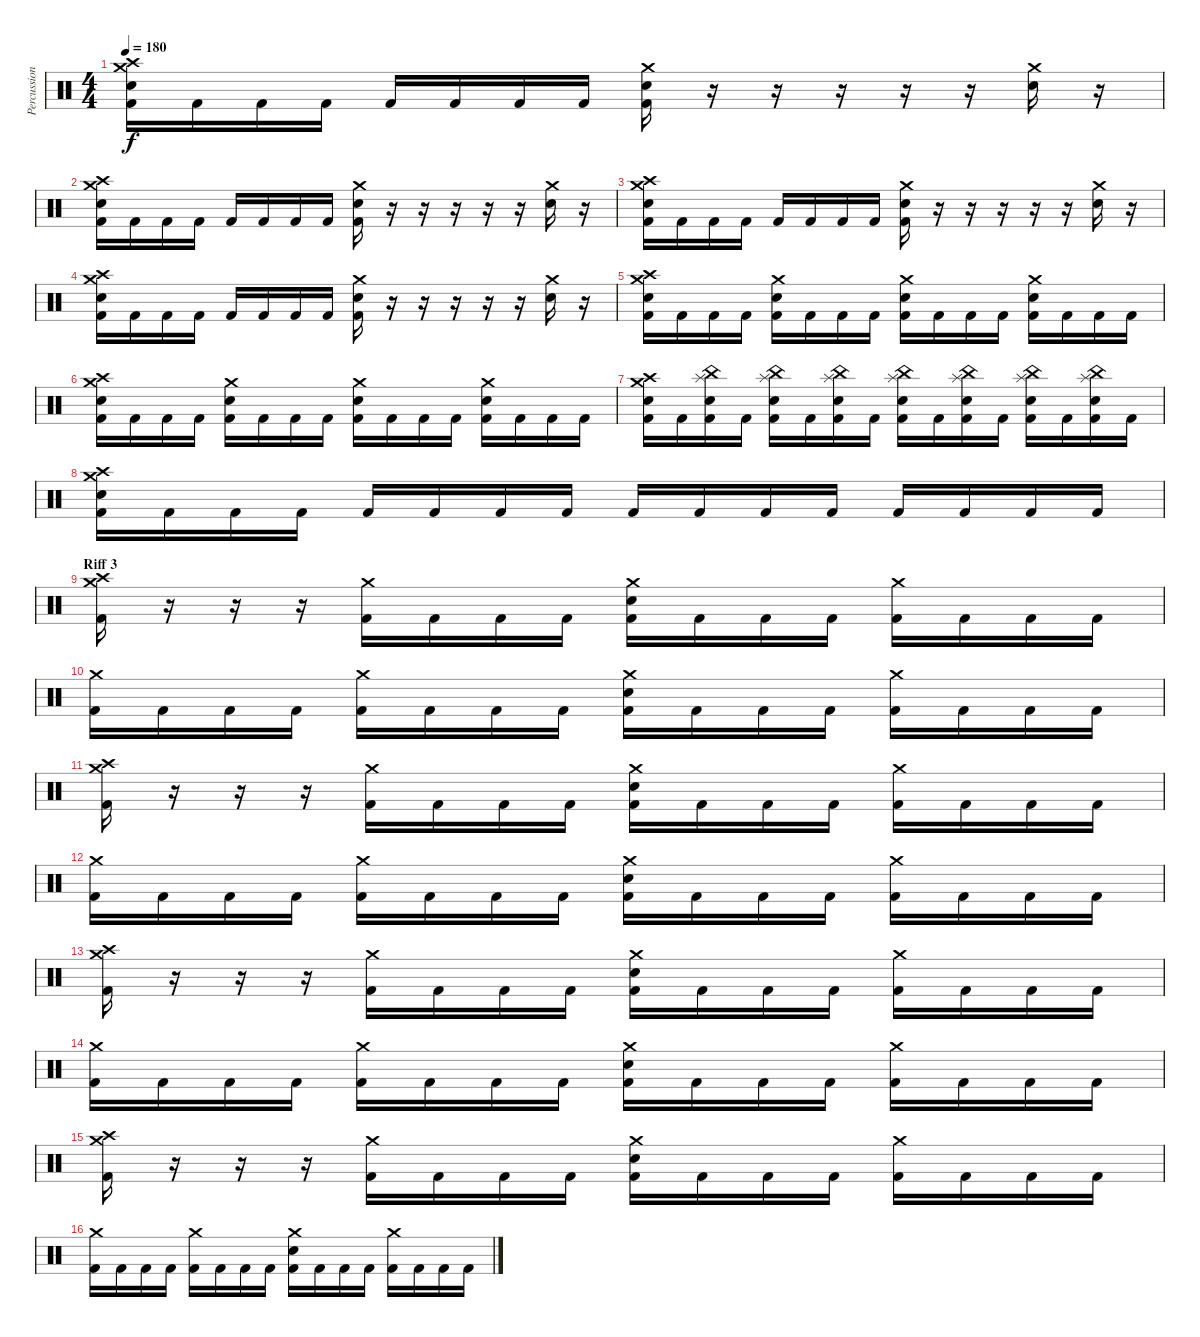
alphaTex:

\track ("Percussion" "Percussion") {instrument percussion}
\staff {score}
\articulation defaults
\ts (4 4)
\tempo 180
\clef neutral
\ks c
("Crash medium (hit)" "Crash high (hit)" "Electric Snare (hit)" "Kick (hit) 2").16{dy f} "Kick (hit) 2".16 "Kick (hit) 2".16 "Kick (hit) 2".16 "Kick (hit) 2".16 "Kick (hit) 2".16 "Kick (hit) 2".16 "Kick (hit) 2".16 ("Crash medium (hit)" "Electric Snare (hit)" "Kick (hit) 2").16 r.16 r.16 r.16 r.16 r.16 ("Crash medium (hit)" "Electric Snare (hit)").16 r.16 |
("Crash medium (hit)" "Crash high (hit)" "Electric Snare (hit)" "Kick (hit) 2").16 "Kick (hit) 2".16 "Kick (hit) 2".16 "Kick (hit) 2".16 "Kick (hit) 2".16 "Kick (hit) 2".16 "Kick (hit) 2".16 "Kick (hit) 2".16 ("Crash medium (hit)" "Electric Snare (hit)" "Kick (hit) 2").16 r.16 r.16 r.16 r.16 r.16 ("Crash medium (hit)" "Electric Snare (hit)").16 r.16 |
("Crash medium (hit)" "Crash high (hit)" "Electric Snare (hit)" "Kick (hit) 2").16 "Kick (hit) 2".16 "Kick (hit) 2".16 "Kick (hit) 2".16 "Kick (hit) 2".16 "Kick (hit) 2".16 "Kick (hit) 2".16 "Kick (hit) 2".16 ("Crash medium (hit)" "Electric Snare (hit)" "Kick (hit) 2").16 r.16 r.16 r.16 r.16 r.16 ("Crash medium (hit)" "Electric Snare (hit)").16 r.16 |
("Crash medium (hit)" "Crash high (hit)" "Electric Snare (hit)" "Kick (hit) 2").16 "Kick (hit) 2".16 "Kick (hit) 2".16 "Kick (hit) 2".16 "Kick (hit) 2".16 "Kick (hit) 2".16 "Kick (hit) 2".16 "Kick (hit) 2".16 ("Crash medium (hit)" "Electric Snare (hit)" "Kick (hit) 2").16 r.16 r.16 r.16 r.16 r.16 ("Crash medium (hit)" "Electric Snare (hit)").16 r.16 |
("Crash medium (hit)" "Crash high (hit)" "Electric Snare (hit)" "Kick (hit) 2").16 "Kick (hit) 2".16 "Kick (hit) 2".16 "Kick (hit) 2".16 ("Crash medium (hit)" "Electric Snare (hit)" "Kick (hit) 2").16 "Kick (hit) 2".16 "Kick (hit) 2".16 "Kick (hit) 2".16 ("Crash medium (hit)" "Electric Snare (hit)" "Kick (hit) 2").16 "Kick (hit) 2".16 "Kick (hit) 2".16 "Kick (hit) 2".16 ("Crash medium (hit)" "Electric Snare (hit)" "Kick (hit) 2").16 "Kick (hit) 2".16 "Kick (hit) 2".16 "Kick (hit) 2".16 |
("Crash medium (hit)" "Crash high (hit)" "Electric Snare (hit)" "Kick (hit) 2").16 "Kick (hit) 2".16 "Kick (hit) 2".16 "Kick (hit) 2".16 ("Crash medium (hit)" "Electric Snare (hit)" "Kick (hit) 2").16 "Kick (hit) 2".16 "Kick (hit) 2".16 "Kick (hit) 2".16 ("Crash medium (hit)" "Electric Snare (hit)" "Kick (hit) 2").16 "Kick (hit) 2".16 "Kick (hit) 2".16 "Kick (hit) 2".16 ("Crash medium (hit)" "Electric Snare (hit)" "Kick (hit) 2").16 "Kick (hit) 2".16 "Kick (hit) 2".16 "Kick (hit) 2".16 |
("Crash medium (hit)" "Crash high (hit)" "Electric Snare (hit)" "Kick (hit) 2").16 "Kick (hit) 2".16 ("Splash (hit)" "China (hit)" "Electric Snare (hit)" "Kick (hit) 2").16 "Kick (hit) 2".16 ("Splash (hit)" "China (hit)" "Electric Snare (hit)" "Kick (hit) 2").16 "Kick (hit) 2".16 ("Splash (hit)" "China (hit)" "Electric Snare (hit)" "Kick (hit) 2").16 "Kick (hit) 2".16 ("Splash (hit)" "China (hit)" "Electric Snare (hit)" "Kick (hit) 2").16 "Kick (hit) 2".16 ("Splash (hit)" "China (hit)" "Electric Snare (hit)" "Kick (hit) 2").16 "Kick (hit) 2".16 ("Splash (hit)" "China (hit)" "Electric Snare (hit)" "Kick (hit) 2").16 "Kick (hit) 2".16 ("Splash (hit)" "China (hit)" "Electric Snare (hit)" "Kick (hit) 2").16 "Kick (hit) 2".16 |
("Crash medium (hit)" "Crash high (hit)" "Electric Snare (hit)" "Kick (hit) 2").16 "Kick (hit) 2".16 "Kick (hit) 2".16 "Kick (hit) 2".16 "Kick (hit) 2".16 "Kick (hit) 2".16 "Kick (hit) 2".16 "Kick (hit) 2".16 "Kick (hit) 2".16 "Kick (hit) 2".16 "Kick (hit) 2".16 "Kick (hit) 2".16 "Kick (hit) 2".16 "Kick (hit) 2".16 "Kick (hit) 2".16 "Kick (hit) 2".16 |
\section ("" "Riff 3")
("Crash medium (hit)" "Crash high (hit)" "Kick (hit) 2").16 r.16 r.16 r.16 ("Crash medium (hit)" "Kick (hit) 2").16 "Kick (hit) 2".16 "Kick (hit) 2".16 "Kick (hit) 2".16 ("Crash medium (hit)" "Electric Snare (hit)" "Kick (hit) 2").16 "Kick (hit) 2".16 "Kick (hit) 2".16 "Kick (hit) 2".16 ("Crash medium (hit)" "Kick (hit) 2").16 "Kick (hit) 2".16 "Kick (hit) 2".16 "Kick (hit) 2".16 |
("Crash medium (hit)" "Kick (hit) 2").16 "Kick (hit) 2".16 "Kick (hit) 2".16 "Kick (hit) 2".16 ("Crash medium (hit)" "Kick (hit) 2").16 "Kick (hit) 2".16 "Kick (hit) 2".16 "Kick (hit) 2".16 ("Crash medium (hit)" "Electric Snare (hit)" "Kick (hit) 2").16 "Kick (hit) 2".16 "Kick (hit) 2".16 "Kick (hit) 2".16 ("Crash medium (hit)" "Kick (hit) 2").16 "Kick (hit) 2".16 "Kick (hit) 2".16 "Kick (hit) 2".16 |
("Crash medium (hit)" "Crash high (hit)" "Kick (hit) 2").16 r.16 r.16 r.16 ("Crash medium (hit)" "Kick (hit) 2").16 "Kick (hit) 2".16 "Kick (hit) 2".16 "Kick (hit) 2".16 ("Crash medium (hit)" "Electric Snare (hit)" "Kick (hit) 2").16 "Kick (hit) 2".16 "Kick (hit) 2".16 "Kick (hit) 2".16 ("Crash medium (hit)" "Kick (hit) 2").16 "Kick (hit) 2".16 "Kick (hit) 2".16 "Kick (hit) 2".16 |
("Crash medium (hit)" "Kick (hit) 2").16 "Kick (hit) 2".16 "Kick (hit) 2".16 "Kick (hit) 2".16 ("Crash medium (hit)" "Kick (hit) 2").16 "Kick (hit) 2".16 "Kick (hit) 2".16 "Kick (hit) 2".16 ("Crash medium (hit)" "Electric Snare (hit)" "Kick (hit) 2").16 "Kick (hit) 2".16 "Kick (hit) 2".16 "Kick (hit) 2".16 ("Crash medium (hit)" "Kick (hit) 2").16 "Kick (hit) 2".16 "Kick (hit) 2".16 "Kick (hit) 2".16 |
("Crash medium (hit)" "Crash high (hit)" "Kick (hit) 2").16 r.16 r.16 r.16 ("Crash medium (hit)" "Kick (hit) 2").16 "Kick (hit) 2".16 "Kick (hit) 2".16 "Kick (hit) 2".16 ("Crash medium (hit)" "Electric Snare (hit)" "Kick (hit) 2").16 "Kick (hit) 2".16 "Kick (hit) 2".16 "Kick (hit) 2".16 ("Crash medium (hit)" "Kick (hit) 2").16 "Kick (hit) 2".16 "Kick (hit) 2".16 "Kick (hit) 2".16 |
("Crash medium (hit)" "Kick (hit) 2").16 "Kick (hit) 2".16 "Kick (hit) 2".16 "Kick (hit) 2".16 ("Crash medium (hit)" "Kick (hit) 2").16 "Kick (hit) 2".16 "Kick (hit) 2".16 "Kick (hit) 2".16 ("Crash medium (hit)" "Electric Snare (hit)" "Kick (hit) 2").16 "Kick (hit) 2".16 "Kick (hit) 2".16 "Kick (hit) 2".16 ("Crash medium (hit)" "Kick (hit) 2").16 "Kick (hit) 2".16 "Kick (hit) 2".16 "Kick (hit) 2".16 |
("Crash medium (hit)" "Crash high (hit)" "Kick (hit) 2").16 r.16 r.16 r.16 ("Crash medium (hit)" "Kick (hit) 2").16 "Kick (hit) 2".16 "Kick (hit) 2".16 "Kick (hit) 2".16 ("Crash medium (hit)" "Electric Snare (hit)" "Kick (hit) 2").16 "Kick (hit) 2".16 "Kick (hit) 2".16 "Kick (hit) 2".16 ("Crash medium (hit)" "Kick (hit) 2").16 "Kick (hit) 2".16 "Kick (hit) 2".16 "Kick (hit) 2".16 |
("Crash medium (hit)" "Kick (hit) 2").16 "Kick (hit) 2".16 "Kick (hit) 2".16 "Kick (hit) 2".16 ("Crash medium (hit)" "Kick (hit) 2").16 "Kick (hit) 2".16 "Kick (hit) 2".16 "Kick (hit) 2".16 ("Crash medium (hit)" "Electric Snare (hit)" "Kick (hit) 2").16 "Kick (hit) 2".16 "Kick (hit) 2".16 "Kick (hit) 2".16 ("Crash medium (hit)" "Kick (hit) 2").16 "Kick (hit) 2".16 "Kick (hit) 2".16 "Kick (hit) 2".16
